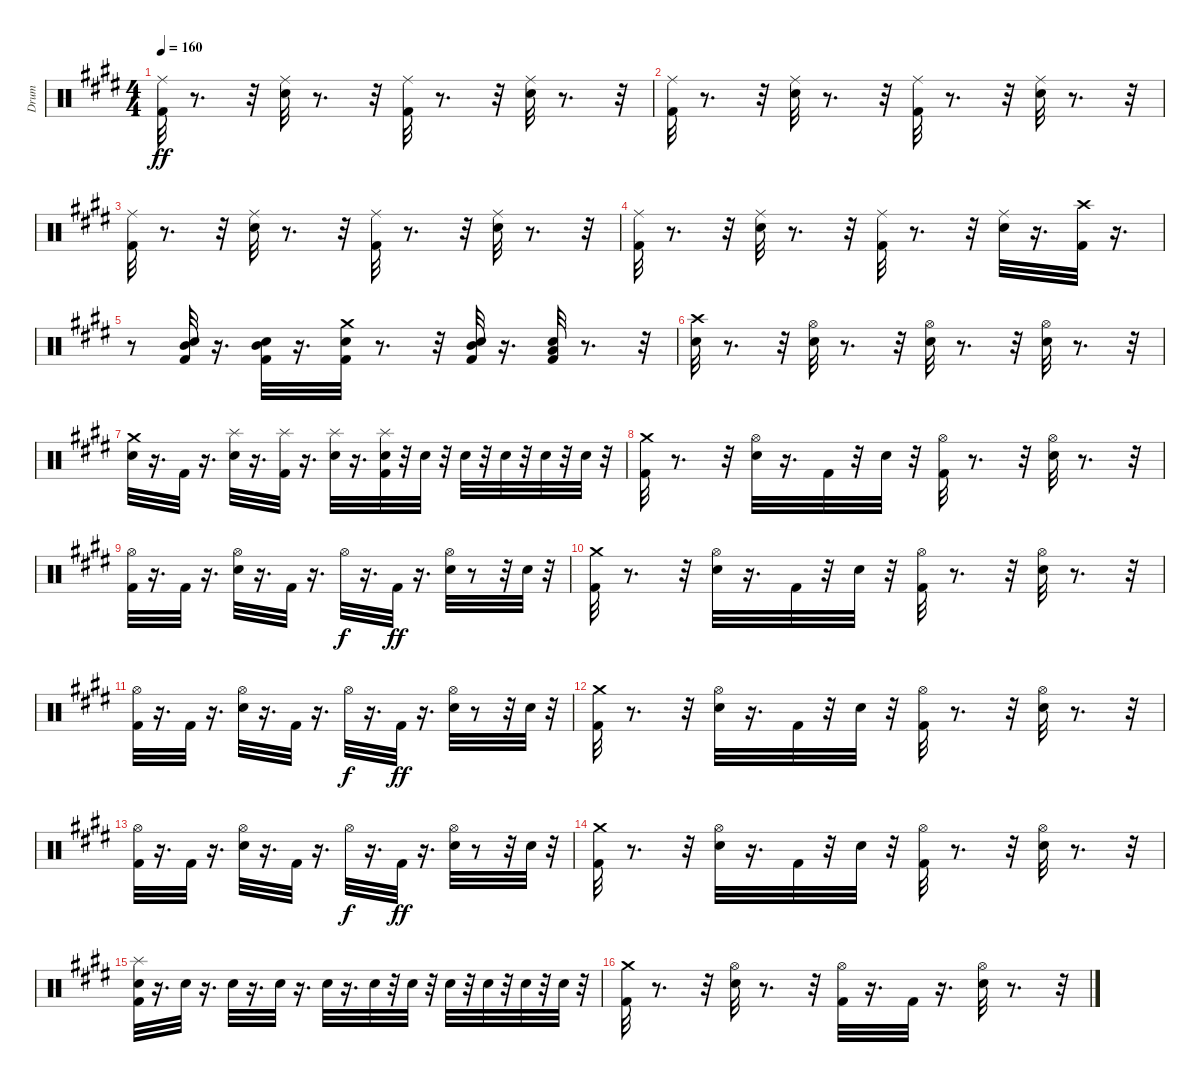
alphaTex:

\track ("Drum" "Drum") {instrument percussion}
\staff {score}
\articulation defaults
\ts (4 4)
\tempo 160
\clef neutral
\ks e
("Kick (hit) 2" "Ride (middle)").32{dy ff} r.8{d} r.32 ("Electric Snare (hit)" "Ride (middle)").32 r.8{d} r.32 ("Kick (hit) 2" "Ride (middle)").32 r.8{d} r.32 ("Electric Snare (hit)" "Ride (middle)").32 r.8{d} r.32 |
("Kick (hit) 2" "Ride (middle)").32 r.8{d} r.32 ("Electric Snare (hit)" "Ride (middle)").32 r.8{d} r.32 ("Kick (hit) 2" "Ride (middle)").32 r.8{d} r.32 ("Electric Snare (hit)" "Ride (middle)").32 r.8{d} r.32 |
("Kick (hit) 2" "Ride (middle)").32 r.8{d} r.32 ("Electric Snare (hit)" "Ride (middle)").32 r.8{d} r.32 ("Kick (hit) 2" "Ride (middle)").32 r.8{d} r.32 ("Electric Snare (hit)" "Ride (middle)").32 r.8{d} r.32 |
("Kick (hit) 2" "Ride (middle)").32 r.8{d} r.32 ("Electric Snare (hit)" "Ride (middle)").32 r.8{d} r.32 ("Kick (hit) 2" "Ride (middle)").32 r.8{d} r.32 ("Electric Snare (hit)" "Ride (middle)").32 r.16{d} ("Crash high (hit)" "Kick (hit) 2").32 r.16{d} |
r.8 ("Mid Tom (hit)" "Kick (hit) 2" "Electric Snare (hit)").32 r.16{d} ("Mid Tom (hit)" "Kick (hit) 2" "Electric Snare (hit)").32 r.16{d} ("Crash medium (hit)" "Kick (hit) 2" "Electric Snare (hit)").32 r.8{d} r.32 ("Mid Tom (hit)" "Kick (hit) 2" "Electric Snare (hit)").32 r.16{d} ("Kick (hit) 2" "Low Tom (hit)" "Electric Snare (hit)").32 r.8{d} r.32 |
("Crash high (hit)" "Electric Snare (hit)").32 r.8{d} r.32 ("Electric Snare (hit)" "Hi-Hat (open)").32 r.8{d} r.32 ("Electric Snare (hit)" "Hi-Hat (open)").32 r.8{d} r.32 ("Electric Snare (hit)" "Hi-Hat (open)").32 r.8{d} r.32 |
("Crash medium (hit)" "Electric Snare (hit)").32 r.16{d} "Kick (hit) 2".32 r.16{d} ("Splash (hit)" "Electric Snare (hit)").32 r.16{d} ("Splash (hit)" "Kick (hit) 2").32 r.16{d} ("Splash (hit)" "Electric Snare (hit)").32 r.16{d} ("Splash (hit)" "Kick (hit) 2" "Electric Snare (hit)").32 r.32 "Electric Snare (hit)".32 r.32 "Electric Snare (hit)".32 r.32 "Electric Snare (hit)".32 r.32 "Electric Snare (hit)".32 r.32 "Electric Snare (hit)".32 r.32 |
("Crash medium (hit)" "Kick (hit) 2").32 r.8{d} r.32 ("Electric Snare (hit)" "Hi-Hat (open)").32 r.16{d} "Kick (hit) 2".32 r.32 "Electric Snare (hit)".32 r.32 ("Kick (hit) 2" "Hi-Hat (open)").32 r.8{d} r.32 ("Electric Snare (hit)" "Hi-Hat (open)").32 r.8{d} r.32 |
("Kick (hit) 2" "Hi-Hat (open)").32 r.16{d} "Kick (hit) 2".32 r.16{d} ("Electric Snare (hit)" "Hi-Hat (open)").32 r.16{d} "Kick (hit) 2".32 r.16{d} "Hi-Hat (open)".32{dy f} r.16{d} "Kick (hit) 2".32{dy ff} r.16{d} ("Electric Snare (hit)" "Hi-Hat (open)").32 r.8 r.32 "Electric Snare (hit)".32 r.32 |
("Crash medium (hit)" "Kick (hit) 2").32 r.8{d} r.32 ("Electric Snare (hit)" "Hi-Hat (open)").32 r.16{d} "Kick (hit) 2".32 r.32 "Electric Snare (hit)".32 r.32 ("Kick (hit) 2" "Hi-Hat (open)").32 r.8{d} r.32 ("Electric Snare (hit)" "Hi-Hat (open)").32 r.8{d} r.32 |
("Kick (hit) 2" "Hi-Hat (open)").32 r.16{d} "Kick (hit) 2".32 r.16{d} ("Electric Snare (hit)" "Hi-Hat (open)").32 r.16{d} "Kick (hit) 2".32 r.16{d} "Hi-Hat (open)".32{dy f} r.16{d} "Kick (hit) 2".32{dy ff} r.16{d} ("Electric Snare (hit)" "Hi-Hat (open)").32 r.8 r.32 "Electric Snare (hit)".32 r.32 |
("Crash medium (hit)" "Kick (hit) 2").32 r.8{d} r.32 ("Electric Snare (hit)" "Hi-Hat (open)").32 r.16{d} "Kick (hit) 2".32 r.32 "Electric Snare (hit)".32 r.32 ("Kick (hit) 2" "Hi-Hat (open)").32 r.8{d} r.32 ("Electric Snare (hit)" "Hi-Hat (open)").32 r.8{d} r.32 |
("Kick (hit) 2" "Hi-Hat (open)").32 r.16{d} "Kick (hit) 2".32 r.16{d} ("Electric Snare (hit)" "Hi-Hat (open)").32 r.16{d} "Kick (hit) 2".32 r.16{d} "Hi-Hat (open)".32{dy f} r.16{d} "Kick (hit) 2".32{dy ff} r.16{d} ("Electric Snare (hit)" "Hi-Hat (open)").32 r.8 r.32 "Electric Snare (hit)".32 r.32 |
("Crash medium (hit)" "Kick (hit) 2").32 r.8{d} r.32 ("Electric Snare (hit)" "Hi-Hat (open)").32 r.16{d} "Kick (hit) 2".32 r.32 "Electric Snare (hit)".32 r.32 ("Kick (hit) 2" "Hi-Hat (open)").32 r.8{d} r.32 ("Electric Snare (hit)" "Hi-Hat (open)").32 r.8{d} r.32 |
("Splash (hit)" "Kick (hit) 2" "Electric Snare (hit)").32 r.16{d} "Electric Snare (hit)".32 r.16{d} "Electric Snare (hit)".32 r.16{d} "Electric Snare (hit)".32 r.16{d} "Electric Snare (hit)".32 r.16{d} "Electric Snare (hit)".32 r.32 "Electric Snare (hit)".32 r.32 "Electric Snare (hit)".32 r.32 "Electric Snare (hit)".32 r.32 "Electric Snare (hit)".32 r.32 "Electric Snare (hit)".32 r.32 |
("Crash medium (hit)" "Kick (hit) 2").32 r.8{d} r.32 ("Electric Snare (hit)" "Hi-Hat (open)").32 r.8{d} r.32 ("Kick (hit) 2" "Hi-Hat (open)").32 r.16{d} "Kick (hit) 2".32 r.16{d} ("Electric Snare (hit)" "Hi-Hat (open)").32 r.8{d} r.32
